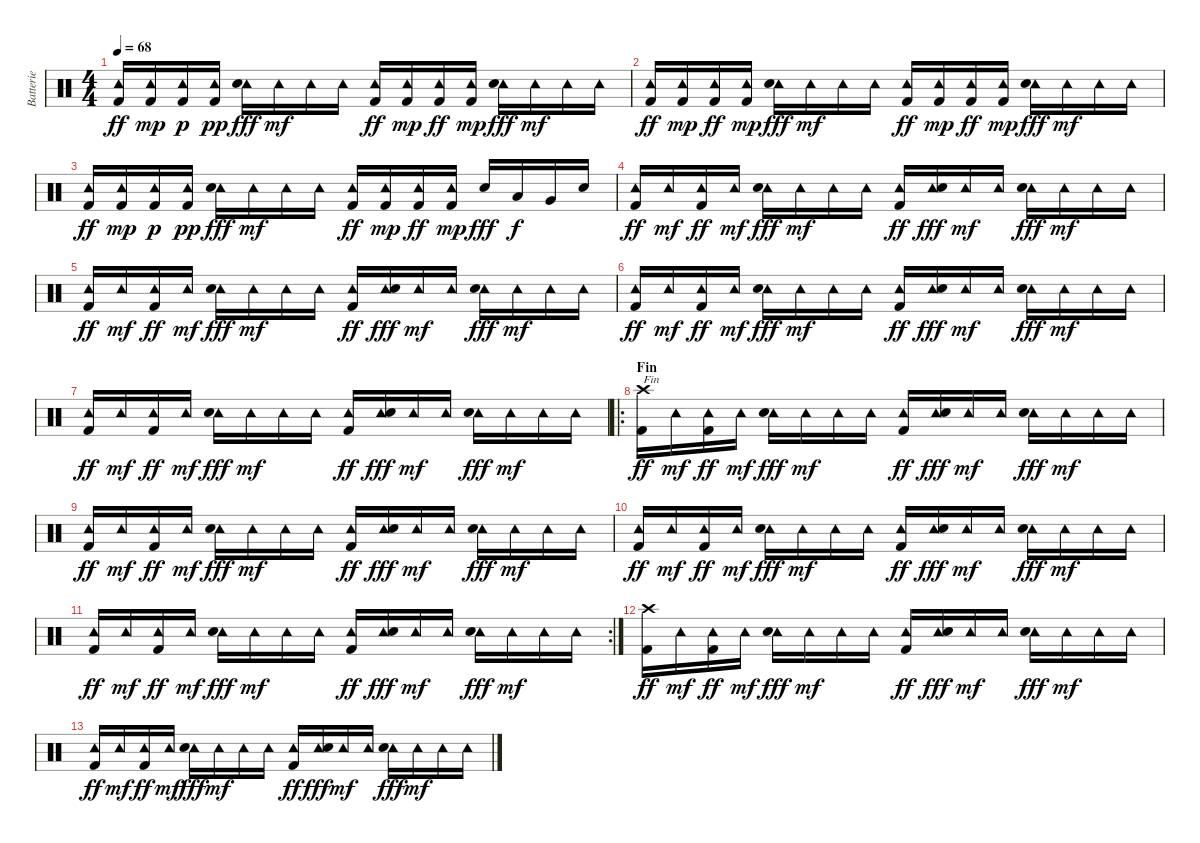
\track ("Batterie" "Batterie") {instrument percussion}
\staff {score}
\articulation defaults
\ts (4 4)
\tempo 68
\clef neutral
\ks c
("Tambourine (hit)" "Kick (hit) 2").16{dy ff} ("Tambourine (hit)" "Kick (hit) 2").16{dy mp} ("Tambourine (hit)" "Kick (hit) 2").16{dy p} ("Tambourine (hit)" "Kick (hit) 2").16{dy pp} ("Tambourine (hit)" "Electric Snare (hit)").16{dy fff} "Tambourine (hit)".16{dy mf} "Tambourine (hit)".16 "Tambourine (hit)".16 ("Tambourine (hit)" "Kick (hit) 2").16{dy ff} ("Tambourine (hit)" "Kick (hit) 2").16{dy mp} ("Tambourine (hit)" "Kick (hit) 2").16{dy ff} ("Tambourine (hit)" "Kick (hit) 2").16{dy mp} ("Tambourine (hit)" "Electric Snare (hit)").16{dy fff} "Tambourine (hit)".16{dy mf} "Tambourine (hit)".16 "Tambourine (hit)".16 |
("Tambourine (hit)" "Kick (hit) 2").16{dy ff} ("Tambourine (hit)" "Kick (hit) 2").16{dy mp} ("Tambourine (hit)" "Kick (hit) 2").16{dy ff} ("Tambourine (hit)" "Kick (hit) 2").16{dy mp} ("Tambourine (hit)" "Electric Snare (hit)").16{dy fff} "Tambourine (hit)".16{dy mf} "Tambourine (hit)".16 "Tambourine (hit)".16 ("Tambourine (hit)" "Kick (hit) 2").16{dy ff} ("Tambourine (hit)" "Kick (hit) 2").16{dy mp} ("Tambourine (hit)" "Kick (hit) 2").16{dy ff} ("Tambourine (hit)" "Kick (hit) 2").16{dy mp} ("Tambourine (hit)" "Electric Snare (hit)").16{dy fff} "Tambourine (hit)".16{dy mf} "Tambourine (hit)".16 "Tambourine (hit)".16 |
("Tambourine (hit)" "Kick (hit) 2").16{dy ff} ("Tambourine (hit)" "Kick (hit) 2").16{dy mp} ("Tambourine (hit)" "Kick (hit) 2").16{dy p} ("Tambourine (hit)" "Kick (hit) 2").16{dy pp} ("Tambourine (hit)" "Electric Snare (hit)").16{dy fff} "Tambourine (hit)".16{dy mf} "Tambourine (hit)".16 "Tambourine (hit)".16 ("Tambourine (hit)" "Kick (hit) 2").16{dy ff} ("Tambourine (hit)" "Kick (hit) 2").16{dy mp} ("Tambourine (hit)" "Kick (hit) 2").16{dy ff} ("Tambourine (hit)" "Kick (hit) 2").16{dy mp} "Electric Snare (hit)".16{dy fff} "Low Tom (hit)".16{dy f} "Very Low Tom (hit)".16 "Electric Snare (hit)".16 |
("Tambourine (hit)" "Kick (hit) 2").16{dy ff} "Tambourine (hit)".16{dy mf} ("Tambourine (hit)" "Kick (hit) 2").16{dy ff} "Tambourine (hit)".16{dy mf} ("Tambourine (hit)" "Electric Snare (hit)").16{dy fff} "Tambourine (hit)".16{dy mf} "Tambourine (hit)".16 "Tambourine (hit)".16 ("Tambourine (hit)" "Kick (hit) 2").16{dy ff} ("Tambourine (hit)" "Electric Snare (hit)").16{dy fff} "Tambourine (hit)".16{dy mf} "Tambourine (hit)".16 ("Tambourine (hit)" "Electric Snare (hit)").16{dy fff} "Tambourine (hit)".16{dy mf} "Tambourine (hit)".16 "Tambourine (hit)".16 |
("Tambourine (hit)" "Kick (hit) 2").16{dy ff} "Tambourine (hit)".16{dy mf} ("Tambourine (hit)" "Kick (hit) 2").16{dy ff} "Tambourine (hit)".16{dy mf} ("Tambourine (hit)" "Electric Snare (hit)").16{dy fff} "Tambourine (hit)".16{dy mf} "Tambourine (hit)".16 "Tambourine (hit)".16 ("Tambourine (hit)" "Kick (hit) 2").16{dy ff} ("Tambourine (hit)" "Electric Snare (hit)").16{dy fff} "Tambourine (hit)".16{dy mf} "Tambourine (hit)".16 ("Tambourine (hit)" "Electric Snare (hit)").16{dy fff} "Tambourine (hit)".16{dy mf} "Tambourine (hit)".16 "Tambourine (hit)".16 |
("Tambourine (hit)" "Kick (hit) 2").16{dy ff} "Tambourine (hit)".16{dy mf} ("Tambourine (hit)" "Kick (hit) 2").16{dy ff} "Tambourine (hit)".16{dy mf} ("Tambourine (hit)" "Electric Snare (hit)").16{dy fff} "Tambourine (hit)".16{dy mf} "Tambourine (hit)".16 "Tambourine (hit)".16 ("Tambourine (hit)" "Kick (hit) 2").16{dy ff} ("Tambourine (hit)" "Electric Snare (hit)").16{dy fff} "Tambourine (hit)".16{dy mf} "Tambourine (hit)".16 ("Tambourine (hit)" "Electric Snare (hit)").16{dy fff} "Tambourine (hit)".16{dy mf} "Tambourine (hit)".16 "Tambourine (hit)".16 |
("Tambourine (hit)" "Kick (hit) 2").16{dy ff} "Tambourine (hit)".16{dy mf} ("Tambourine (hit)" "Kick (hit) 2").16{dy ff} "Tambourine (hit)".16{dy mf} ("Tambourine (hit)" "Electric Snare (hit)").16{dy fff} "Tambourine (hit)".16{dy mf} "Tambourine (hit)".16 "Tambourine (hit)".16 ("Tambourine (hit)" "Kick (hit) 2").16{dy ff} ("Tambourine (hit)" "Electric Snare (hit)").16{dy fff} "Tambourine (hit)".16{dy mf} "Tambourine (hit)".16 ("Tambourine (hit)" "Electric Snare (hit)").16{dy fff} "Tambourine (hit)".16{dy mf} "Tambourine (hit)".16 "Tambourine (hit)".16 |
\ro
\section ("" "Fin")
("Crash high (hit)" "Kick (hit) 2").16{txt "Fin" dy ff} "Tambourine (hit)".16{dy mf} ("Tambourine (hit)" "Kick (hit) 2").16{dy ff} "Tambourine (hit)".16{dy mf} ("Tambourine (hit)" "Electric Snare (hit)").16{dy fff} "Tambourine (hit)".16{dy mf} "Tambourine (hit)".16 "Tambourine (hit)".16 ("Tambourine (hit)" "Kick (hit) 2").16{dy ff} ("Tambourine (hit)" "Electric Snare (hit)").16{dy fff} "Tambourine (hit)".16{dy mf} "Tambourine (hit)".16 ("Tambourine (hit)" "Electric Snare (hit)").16{dy fff} "Tambourine (hit)".16{dy mf} "Tambourine (hit)".16 "Tambourine (hit)".16 |
("Tambourine (hit)" "Kick (hit) 2").16{dy ff} "Tambourine (hit)".16{dy mf} ("Tambourine (hit)" "Kick (hit) 2").16{dy ff} "Tambourine (hit)".16{dy mf} ("Tambourine (hit)" "Electric Snare (hit)").16{dy fff} "Tambourine (hit)".16{dy mf} "Tambourine (hit)".16 "Tambourine (hit)".16 ("Tambourine (hit)" "Kick (hit) 2").16{dy ff} ("Tambourine (hit)" "Electric Snare (hit)").16{dy fff} "Tambourine (hit)".16{dy mf} "Tambourine (hit)".16 ("Tambourine (hit)" "Electric Snare (hit)").16{dy fff} "Tambourine (hit)".16{dy mf} "Tambourine (hit)".16 "Tambourine (hit)".16 |
("Tambourine (hit)" "Kick (hit) 2").16{dy ff} "Tambourine (hit)".16{dy mf} ("Tambourine (hit)" "Kick (hit) 2").16{dy ff} "Tambourine (hit)".16{dy mf} ("Tambourine (hit)" "Electric Snare (hit)").16{dy fff} "Tambourine (hit)".16{dy mf} "Tambourine (hit)".16 "Tambourine (hit)".16 ("Tambourine (hit)" "Kick (hit) 2").16{dy ff} ("Tambourine (hit)" "Electric Snare (hit)").16{dy fff} "Tambourine (hit)".16{dy mf} "Tambourine (hit)".16 ("Tambourine (hit)" "Electric Snare (hit)").16{dy fff} "Tambourine (hit)".16{dy mf} "Tambourine (hit)".16 "Tambourine (hit)".16 |
\rc 2
("Tambourine (hit)" "Kick (hit) 2").16{dy ff} "Tambourine (hit)".16{dy mf} ("Tambourine (hit)" "Kick (hit) 2").16{dy ff} "Tambourine (hit)".16{dy mf} ("Tambourine (hit)" "Electric Snare (hit)").16{dy fff} "Tambourine (hit)".16{dy mf} "Tambourine (hit)".16 "Tambourine (hit)".16 ("Tambourine (hit)" "Kick (hit) 2").16{dy ff} ("Tambourine (hit)" "Electric Snare (hit)").16{dy fff} "Tambourine (hit)".16{dy mf} "Tambourine (hit)".16 ("Tambourine (hit)" "Electric Snare (hit)").16{dy fff} "Tambourine (hit)".16{dy mf} "Tambourine (hit)".16 "Tambourine (hit)".16 |
("Crash high (hit)" "Kick (hit) 2").16{dy ff volume 0} "Tambourine (hit)".16{dy mf} ("Tambourine (hit)" "Kick (hit) 2").16{dy ff} "Tambourine (hit)".16{dy mf} ("Tambourine (hit)" "Electric Snare (hit)").16{dy fff} "Tambourine (hit)".16{dy mf} "Tambourine (hit)".16 "Tambourine (hit)".16 ("Tambourine (hit)" "Kick (hit) 2").16{dy ff} ("Tambourine (hit)" "Electric Snare (hit)").16{dy fff} "Tambourine (hit)".16{dy mf} "Tambourine (hit)".16 ("Tambourine (hit)" "Electric Snare (hit)").16{dy fff} "Tambourine (hit)".16{dy mf} "Tambourine (hit)".16 "Tambourine (hit)".16 |
("Tambourine (hit)" "Kick (hit) 2").16{dy ff} "Tambourine (hit)".16{dy mf} ("Tambourine (hit)" "Kick (hit) 2").16{dy ff} "Tambourine (hit)".16{dy mf} ("Tambourine (hit)" "Electric Snare (hit)").16{dy fff} "Tambourine (hit)".16{dy mf} "Tambourine (hit)".16 "Tambourine (hit)".16 ("Tambourine (hit)" "Kick (hit) 2").16{dy ff} ("Tambourine (hit)" "Electric Snare (hit)").16{dy fff} "Tambourine (hit)".16{dy mf} "Tambourine (hit)".16 ("Tambourine (hit)" "Electric Snare (hit)").16{dy fff} "Tambourine (hit)".16{dy mf} "Tambourine (hit)".16 "Tambourine (hit)".16
